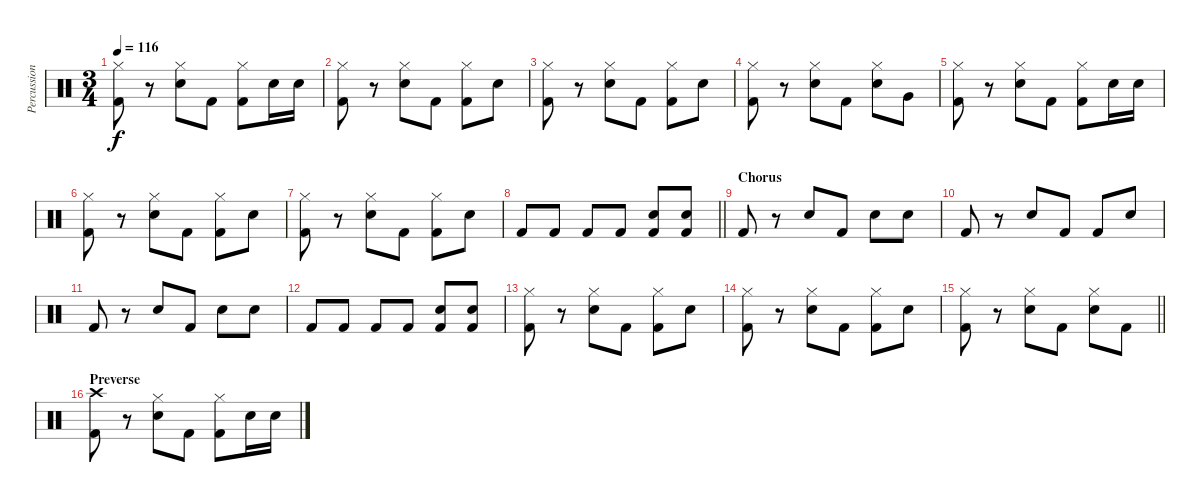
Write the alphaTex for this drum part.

\track ("Percussion" "Percussion") {instrument percussion}
\staff {score}
\articulation defaults
\ts (3 4)
\tempo 116
\clef neutral
\ks c
("Hi-Hat (closed)" "Kick (hit) 2").8{dy f} r.8 ("Hi-Hat (closed)" "Electric Snare (hit)").8 "Kick (hit) 2".8 ("Hi-Hat (closed)" "Kick (hit) 2").8 "Electric Snare (hit)".16 "Electric Snare (hit)".16 |
("Hi-Hat (closed)" "Kick (hit) 2").8 r.8 ("Hi-Hat (closed)" "Electric Snare (hit)").8 "Kick (hit) 2".8 ("Hi-Hat (closed)" "Kick (hit) 2").8 "Electric Snare (hit)".8 |
("Hi-Hat (closed)" "Kick (hit) 2").8 r.8 ("Hi-Hat (closed)" "Electric Snare (hit)").8 "Kick (hit) 2".8 ("Hi-Hat (closed)" "Kick (hit) 2").8 "Electric Snare (hit)".8 |
("Hi-Hat (closed)" "Kick (hit) 2").8 r.8 ("Hi-Hat (closed)" "Electric Snare (hit)").8 "Kick (hit) 2".8 ("Hi-Hat (closed)" "Electric Snare (hit)").8 "Very Low Tom (hit)".8 |
("Hi-Hat (closed)" "Kick (hit) 2").8 r.8 ("Hi-Hat (closed)" "Electric Snare (hit)").8 "Kick (hit) 2".8 ("Hi-Hat (closed)" "Kick (hit) 2").8 "Electric Snare (hit)".16 "Electric Snare (hit)".16 |
("Hi-Hat (closed)" "Kick (hit) 2").8 r.8 ("Hi-Hat (closed)" "Electric Snare (hit)").8 "Kick (hit) 2".8 ("Hi-Hat (closed)" "Kick (hit) 2").8 "Electric Snare (hit)".8 |
("Hi-Hat (closed)" "Kick (hit) 2").8 r.8 ("Hi-Hat (closed)" "Electric Snare (hit)").8 "Kick (hit) 2".8 ("Hi-Hat (closed)" "Kick (hit) 2").8 "Electric Snare (hit)".8 |
\barLineRight lightlight "Kick (hit) 2".8 "Kick (hit) 2".8 "Kick (hit) 2".8 "Kick (hit) 2".8
("Electric Snare (hit)" "Kick (hit) 2").8 ("Electric Snare (hit)" "Kick (hit) 2").8 |
\section ("" "Chorus")
"Kick (hit) 2".8 r.8 "Electric Snare (hit)".8 "Kick (hit) 2".8 "Electric Snare (hit)".8 "Electric Snare (hit)".8 |
"Kick (hit) 2".8 r.8 "Electric Snare (hit)".8 "Kick (hit) 2".8 "Kick (hit) 2".8 "Electric Snare (hit)".8 |
"Kick (hit) 2".8 r.8 "Electric Snare (hit)".8 "Kick (hit) 2".8 "Electric Snare (hit)".8 "Electric Snare (hit)".8 |
"Kick (hit) 2".8 "Kick (hit) 2".8 "Kick (hit) 2".8 "Kick (hit) 2".8 ("Electric Snare (hit)" "Kick (hit) 2").8 ("Electric Snare (hit)" "Kick (hit) 2").8 |
("Hi-Hat (closed)" "Kick (hit) 2").8 r.8 ("Hi-Hat (closed)" "Electric Snare (hit)").8 "Kick (hit) 2".8 ("Hi-Hat (closed)" "Kick (hit) 2").8 "Electric Snare (hit)".8 |
("Hi-Hat (closed)" "Kick (hit) 2").8 r.8 ("Hi-Hat (closed)" "Electric Snare (hit)").8 "Kick (hit) 2".8 ("Hi-Hat (closed)" "Kick (hit) 2").8 "Electric Snare (hit)".8 |
\barLineRight lightlight
("Hi-Hat (closed)" "Kick (hit) 2").8 r.8 ("Hi-Hat (closed)" "Electric Snare (hit)").8 "Kick (hit) 2".8 ("Hi-Hat (closed)" "Electric Snare (hit)").8 "Kick (hit) 2".8 |
\section ("" "Preverse")
("Crash high (hit)" "Kick (hit) 2").8 r.8 ("Hi-Hat (closed)" "Electric Snare (hit)").8 "Kick (hit) 2".8 ("Hi-Hat (closed)" "Kick (hit) 2").8 "Electric Snare (hit)".16 "Electric Snare (hit)".16
